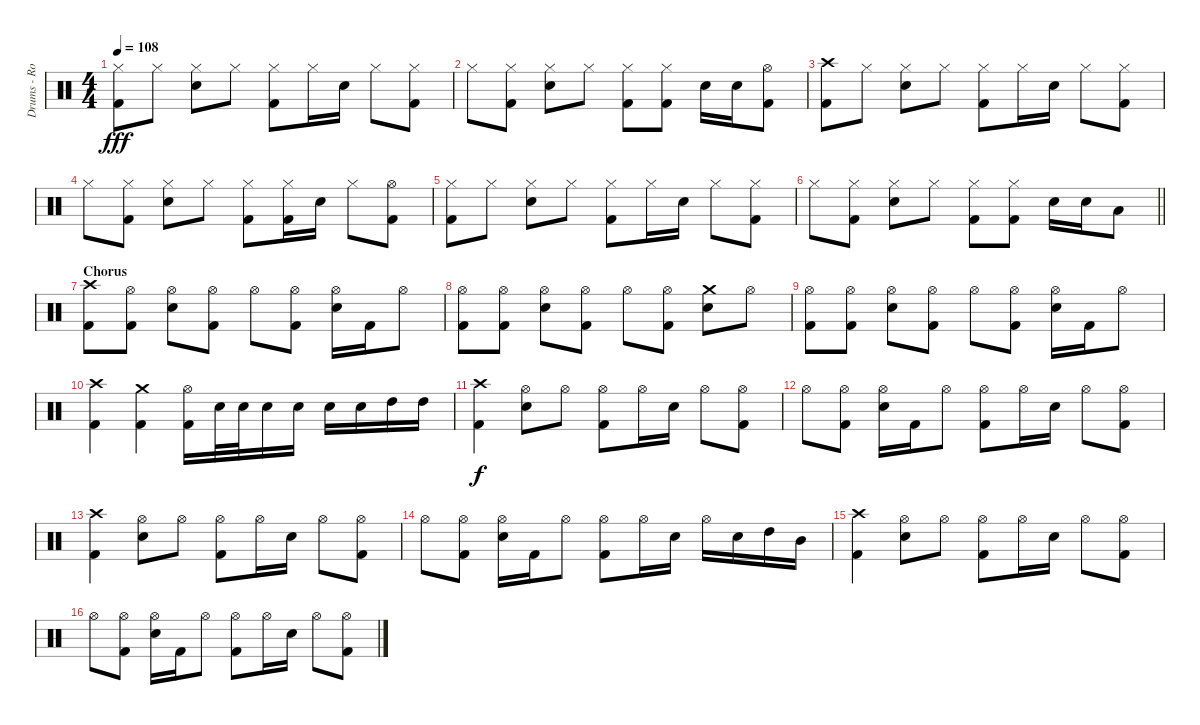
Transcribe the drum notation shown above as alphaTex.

\track ("Drums - Rob Bourdon" "Drums - Ro") {instrument percussion}
\staff {score}
\articulation defaults
\ts (4 4)
\tempo 108
\clef neutral
\ks c
("Hi-Hat (closed)" "Kick (hit) 2").8{dy fff} "Hi-Hat (closed)".8 ("Hi-Hat (closed)" "Snare (hit) 2").8 "Hi-Hat (closed)".8 ("Hi-Hat (closed)" "Kick (hit) 2").8 "Hi-Hat (closed)".16 "Snare (hit) 2".16 "Hi-Hat (closed)".8 ("Hi-Hat (closed)" "Kick (hit) 2").8 |
"Hi-Hat (closed)".8 ("Hi-Hat (closed)" "Kick (hit) 2").8 ("Hi-Hat (closed)" "Snare (hit) 2").8 "Hi-Hat (closed)".8 ("Hi-Hat (closed)" "Kick (hit) 2").8 ("Hi-Hat (closed)" "Kick (hit) 2").8 "Snare (hit) 2".16 "Snare (hit) 2".16 ("Hi-Hat (open)" "Kick (hit) 2").8 |
("Crash high (hit)" "Kick (hit) 2").8 "Hi-Hat (closed)".8 ("Hi-Hat (closed)" "Snare (hit) 2").8 "Hi-Hat (closed)".8 ("Hi-Hat (closed)" "Kick (hit) 2").8 "Hi-Hat (closed)".16 "Snare (hit) 2".16 "Hi-Hat (closed)".8 ("Hi-Hat (closed)" "Kick (hit) 2").8 |
"Hi-Hat (closed)".8 ("Hi-Hat (closed)" "Kick (hit) 2").8 ("Hi-Hat (closed)" "Snare (hit) 2").8 "Hi-Hat (closed)".8 ("Hi-Hat (closed)" "Kick (hit) 2").8 ("Hi-Hat (closed)" "Kick (hit) 2").16 "Snare (hit) 2".16 "Hi-Hat (closed)".8 ("Hi-Hat (open)" "Kick (hit) 2").8 |
("Hi-Hat (closed)" "Kick (hit) 2").8 "Hi-Hat (closed)".8 ("Hi-Hat (closed)" "Snare (hit) 2").8 "Hi-Hat (closed)".8 ("Hi-Hat (closed)" "Kick (hit) 2").8 "Hi-Hat (closed)".16 "Snare (hit) 2".16 "Hi-Hat (closed)".8 ("Hi-Hat (closed)" "Kick (hit) 2").8 |
\barLineRight lightlight "Hi-Hat (closed)".8
("Hi-Hat (closed)" "Kick (hit) 2").8 ("Hi-Hat (closed)" "Snare (hit) 2").8 "Hi-Hat (closed)".8 ("Hi-Hat (closed)" "Kick (hit) 2").8 ("Hi-Hat (closed)" "Kick (hit) 2").8 "Snare (hit) 2".16 "Snare (hit) 2".16 "Low Tom (hit)".8 |
\section ("" "Chorus")
("Crash high (hit)" "Kick (hit) 2").8 ("Hi-Hat (open)" "Kick (hit) 2").8 ("Hi-Hat (open)" "Snare (hit) 2").8 ("Hi-Hat (open)" "Kick (hit) 2").8 "Hi-Hat (open)".8 ("Hi-Hat (open)" "Kick (hit) 2").8 ("Hi-Hat (open)" "Snare (hit) 2").16 "Kick (hit) 2".16 "Hi-Hat (open)".8 |
("Hi-Hat (open)" "Kick (hit) 2").8 ("Hi-Hat (open)" "Kick (hit) 2").8 ("Hi-Hat (open)" "Snare (hit) 2").8 ("Hi-Hat (open)" "Kick (hit) 2").8 "Hi-Hat (open)".8 ("Hi-Hat (open)" "Kick (hit) 2").8 ("Crash medium (hit)" "Snare (hit) 2").8 "Hi-Hat (open)".8 |
("Hi-Hat (open)" "Kick (hit) 2").8 ("Hi-Hat (open)" "Kick (hit) 2").8 ("Hi-Hat (open)" "Snare (hit) 2").8 ("Hi-Hat (open)" "Kick (hit) 2").8 "Hi-Hat (open)".8 ("Hi-Hat (open)" "Kick (hit) 2").8 ("Hi-Hat (open)" "Snare (hit) 2").16 "Kick (hit) 2".16 "Hi-Hat (open)".8 |
("Crash high (hit)" "Kick (hit) 2").4 ("Crash medium (hit)" "Kick (hit) 2").4 ("Hi-Hat (open)" "Kick (hit) 2").16 "Snare (hit) 2".32 "Snare (hit) 2".32 "Snare (hit) 2".16 "Snare (hit) 2".16 "Snare (hit) 2".16 "Snare (hit) 2".16 "High Tom (hit)".16 "High Tom (hit)".16 |
("Crash high (hit)" "Kick (hit) 2").4{dy f} ("Hi-Hat (open)" "Snare (hit) 2").8 "Hi-Hat (open)".8 ("Hi-Hat (open)" "Kick (hit) 2").8 "Hi-Hat (open)".16 "Snare (hit) 2".16 "Hi-Hat (open)".8 ("Hi-Hat (open)" "Kick (hit) 2").8 |
"Hi-Hat (open)".8 ("Hi-Hat (open)" "Kick (hit) 2").8 ("Hi-Hat (open)" "Snare (hit) 2").16 "Kick (hit) 2".16 "Hi-Hat (open)".8 ("Hi-Hat (open)" "Kick (hit) 2").8 "Hi-Hat (open)".16 "Snare (hit) 2".16 "Hi-Hat (open)".8 ("Hi-Hat (open)" "Kick (hit) 2").8 |
("Crash high (hit)" "Kick (hit) 2").4 ("Hi-Hat (open)" "Snare (hit) 2").8 "Hi-Hat (open)".8 ("Hi-Hat (open)" "Kick (hit) 2").8 "Hi-Hat (open)".16 "Snare (hit) 2".16 "Hi-Hat (open)".8 ("Hi-Hat (open)" "Kick (hit) 2").8 |
"Hi-Hat (open)".8 ("Hi-Hat (open)" "Kick (hit) 2").8 ("Hi-Hat (open)" "Snare (hit) 2").16 "Kick (hit) 2".16 "Hi-Hat (open)".8 ("Hi-Hat (open)" "Kick (hit) 2").8 "Hi-Hat (open)".16 "Snare (hit) 2".16 "Hi-Hat (open)".16 "Snare (hit) 2".16 "High Tom (hit)".16 "Mid Tom (hit)".16 |
("Crash high (hit)" "Kick (hit) 2").4 ("Hi-Hat (open)" "Snare (hit) 2").8 "Hi-Hat (open)".8 ("Hi-Hat (open)" "Kick (hit) 2").8 "Hi-Hat (open)".16 "Snare (hit) 2".16 "Hi-Hat (open)".8 ("Hi-Hat (open)" "Kick (hit) 2").8 |
"Hi-Hat (open)".8 ("Hi-Hat (open)" "Kick (hit) 2").8 ("Hi-Hat (open)" "Snare (hit) 2").16 "Kick (hit) 2".16 "Hi-Hat (open)".8 ("Hi-Hat (open)" "Kick (hit) 2").8 "Hi-Hat (open)".16 "Snare (hit) 2".16 "Hi-Hat (open)".8 ("Hi-Hat (open)" "Kick (hit) 2").8
